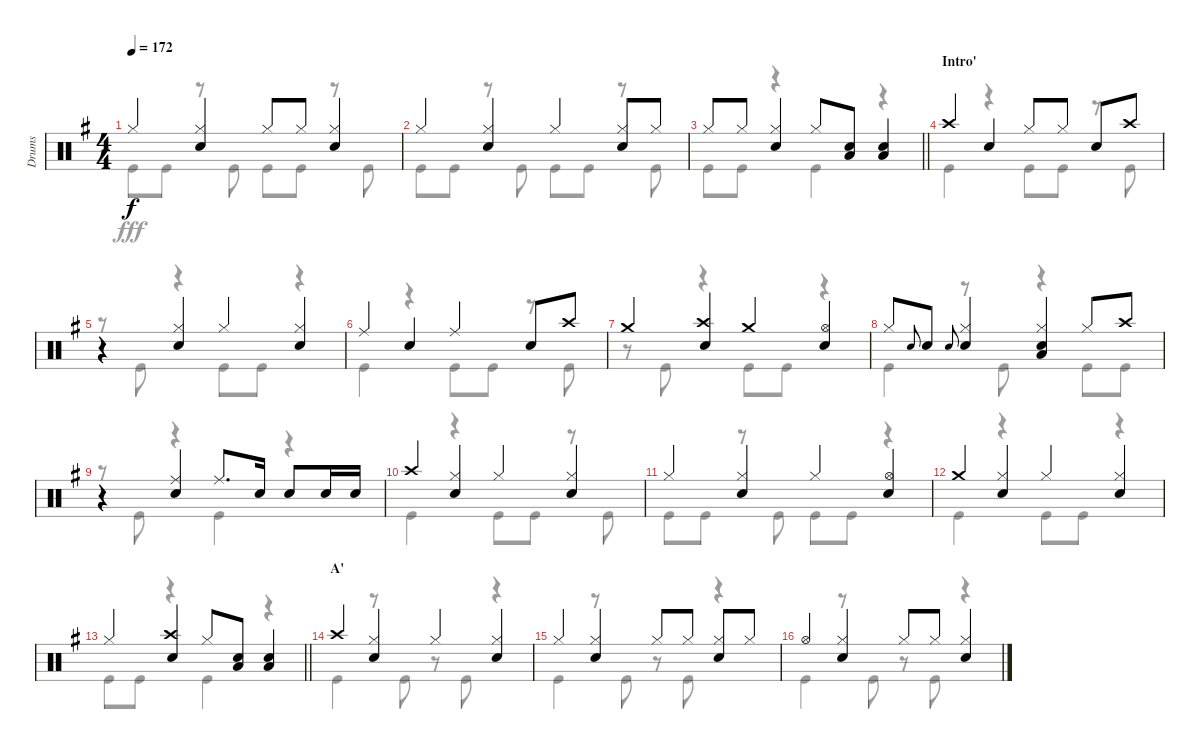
\track ("Drums" "Drums") {instrument percussion}
\staff {score}
\articulation defaults
\voice
\ts (4 4)
\tempo 172
\clef neutral
\ks g "Hi-Hat (closed)".4{dy f}
("Hi-Hat (closed)" "Snare (hit) 2").4 "Hi-Hat (closed)".8 "Hi-Hat (closed)".8 ("Hi-Hat (closed)" "Snare (hit) 2").4 |
"Hi-Hat (closed)".4 ("Hi-Hat (closed)" "Snare (hit) 2").4 "Hi-Hat (closed)".4 ("Hi-Hat (closed)" "Snare (hit) 2").8 "Hi-Hat (closed)".8 |
\barLineRight lightlight "Hi-Hat (closed)".8 "Hi-Hat (closed)".8
("Hi-Hat (closed)" "Snare (hit) 2").4 "Hi-Hat (closed)".8 ("Snare (hit) 2" "Low Tom (hit)").8 ("Snare (hit) 2" "Low Tom (hit)").4 |
\section ("" "Intro'")
"Crash high (hit)".4 "Snare (hit) 2".4 "Hi-Hat (closed)".8 "Hi-Hat (closed)".8 "Snare (hit) 2".8 "Crash high (hit)".8 |
r.4 ("Hi-Hat (closed)" "Snare (hit) 2").4 "Hi-Hat (closed)".4 ("Hi-Hat (closed)" "Snare (hit) 2").4 |
"Ride (middle)".4 "Snare (hit) 2".4 "Ride (middle)".4 "Snare (hit) 2".8 "Crash high (hit)".8 |
"Crash medium (hit)".4 ("Crash high (hit)" "Snare (hit) 2").4 "Crash medium (hit)".4 ("Hi-Hat (open)" "Snare (hit) 2").4 |
"Hi-Hat (closed)".8 "Snare (hit) 2".8{gr onbeat} "Snare (hit) 2".8 "Snare (hit) 2".8{gr onbeat} ("Snare (hit) 2" "Hi-Hat (closed)").4 ("Hi-Hat (closed)" "Snare (hit) 2" "Low Tom (hit)").4 "Hi-Hat (closed)".8 "Crash high (hit)".8 |
r.4 ("Ride (middle)" "Snare (hit) 2").4 "Ride (middle)".8{d} "Snare (hit) 2".16 "Snare (hit) 2".8 "Snare (hit) 2".16 "Snare (hit) 2".16 |
"Crash high (hit)".4 ("Hi-Hat (closed)" "Snare (hit) 2").4 "Hi-Hat (closed)".4 ("Hi-Hat (closed)" "Snare (hit) 2").4 |
"Hi-Hat (closed)".4 ("Hi-Hat (closed)" "Snare (hit) 2").4 "Hi-Hat (closed)".4 ("Hi-Hat (open)" "Snare (hit) 2").4 |
"Crash medium (hit)".4 ("Hi-Hat (closed)" "Snare (hit) 2").4 "Hi-Hat (closed)".4 ("Hi-Hat (closed)" "Snare (hit) 2").4 |
\barLineRight lightlight "Hi-Hat (closed)".4
("Crash high (hit)" "Snare (hit) 2").4 "Hi-Hat (closed)".8 ("Low Tom (hit)" "Snare (hit) 2").8 ("Low Tom (hit)" "Snare (hit) 2").4 |
\section ("" "A'")
"Crash high (hit)".4 ("Hi-Hat (closed)" "Snare (hit) 2").4 "Hi-Hat (closed)".4 ("Hi-Hat (closed)" "Snare (hit) 2").4 |
"Hi-Hat (closed)".4 ("Hi-Hat (closed)" "Snare (hit) 2").4 "Hi-Hat (closed)".8 "Hi-Hat (closed)".8 ("Hi-Hat (closed)" "Snare (hit) 2").8 "Hi-Hat (closed)".8 |
"Hi-Hat (open)".4 ("Hi-Hat (closed)" "Snare (hit) 2").4 "Hi-Hat (closed)".8 "Hi-Hat (closed)".8 ("Hi-Hat (closed)" "Snare (hit) 2").4
\voice
\clef neutral
\ottava regular
\simile none
\ks g "Kick (hit)".8{dy fff} "Kick (hit)".8
r.8 "Kick (hit)".8 "Kick (hit)".8 "Kick (hit)".8 r.8 "Kick (hit)".8 |
"Kick (hit)".8 "Kick (hit)".8 r.8 "Kick (hit)".8 "Kick (hit)".8 "Kick (hit)".8 r.8 "Kick (hit)".8 |
\barLineRight lightlight "Kick (hit)".8 "Kick (hit)".8
r.4 "Kick (hit)".4 r.4 |
"Kick (hit)".4 r.4 "Kick (hit)".8 "Kick (hit)".8 r.8 "Kick (hit)".8 |
r.8 "Kick (hit)".8 r.4 "Kick (hit)".8 "Kick (hit)".8 r.4 |
"Kick (hit)".4 r.4 "Kick (hit)".8 "Kick (hit)".8 r.8 "Kick (hit)".8 |
r.8 "Kick (hit)".8 r.4 "Kick (hit)".8 "Kick (hit)".8 r.4 |
"Kick (hit)".4 r.8 "Kick (hit)".8 r.4 "Kick (hit)".8 "Kick (hit)".8 |
r.8 "Kick (hit)".8 r.4 "Kick (hit)".4 r.4 |
"Kick (hit)".4 r.4 "Kick (hit)".8 "Kick (hit)".8 r.8 "Kick (hit)".8 |
"Kick (hit)".8 "Kick (hit)".8 r.8 "Kick (hit)".8 "Kick (hit)".8 "Kick (hit)".8 r.4 |
"Kick (hit)".4 r.4 "Kick (hit)".8 "Kick (hit)".8 r.4 |
\barLineRight lightlight "Kick (hit)".8 "Kick (hit)".8
r.4 "Kick (hit)".4 r.4 |
"Kick (hit)".4 r.8 "Kick (hit)".8 r.8 "Kick (hit)".8 r.4 |
"Kick (hit)".4 r.8 "Kick (hit)".8 r.8 "Kick (hit)".8 r.4 |
"Kick (hit)".4 r.8 "Kick (hit)".8 r.8 "Kick (hit)".8 r.4
